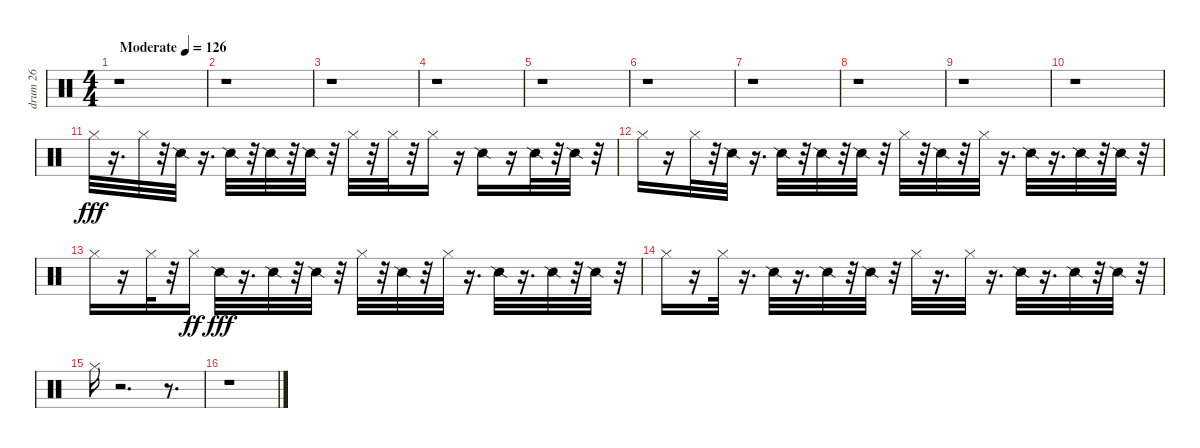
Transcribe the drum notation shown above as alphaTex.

\track ("drum 26" "drum 26") {instrument percussion}
\staff {score}
\articulation defaults
\ts (4 4)
\tempo (126 "Moderate")
\clef neutral
\ks c
r.1{dy fff} |
r.1 |
r.1 |
r.1 |
r.1 |
r.1 |
r.1 |
r.1 |
r.1 |
r.1 |
"Hi-Hat (closed)".32 r.16{d} "Hi-Hat (closed)".32 r.32 "Snare (side stick) 2".32 r.16{d} "Snare (side stick) 2".32 r.32 "Snare (side stick) 2".32 r.32 "Snare (side stick) 2".32 r.32 "Hi-Hat (closed)".32 r.32 "Hi-Hat (closed)".32 r.32 "Hi-Hat (closed)".16 r.16 "Snare (side stick) 2".16 r.16 "Snare (side stick) 2".32 r.32 "Snare (side stick) 2".32 r.32 |
"Hi-Hat (closed)".16 r.16 "Hi-Hat (closed)".32 r.32 "Snare (side stick) 2".32 r.16{d} "Snare (side stick) 2".32 r.32 "Snare (side stick) 2".32 r.32 "Snare (side stick) 2".32 r.32 "Hi-Hat (closed)".32 r.32 "Snare (side stick) 2".32 r.32 "Hi-Hat (closed)".32 r.16{d} "Snare (side stick) 2".32 r.16{d} "Snare (side stick) 2".32 r.32 "Snare (side stick) 2".32 r.32 |
"Hi-Hat (closed)".16 r.16 "Hi-Hat (closed)".32 r.32 "Hi-Hat (closed)".16{dy ff} "Snare (side stick) 2".32{dy fff} r.16{d} "Snare (side stick) 2".32 r.32 "Snare (side stick) 2".32 r.32 "Hi-Hat (closed)".32 r.32 "Snare (side stick) 2".32 r.32 "Hi-Hat (closed)".32 r.16{d} "Snare (side stick) 2".32 r.16{d} "Snare (side stick) 2".32 r.32 "Snare (side stick) 2".32 r.32 |
"Hi-Hat (closed)".16 r.16 "Hi-Hat (closed)".32 r.16{d} "Snare (side stick) 2".32 r.16{d} "Snare (side stick) 2".32 r.32 "Snare (side stick) 2".32 r.32 "Hi-Hat (closed)".32 r.16{d} "Hi-Hat (closed)".32 r.16{d} "Snare (side stick) 2".32 r.16{d} "Snare (side stick) 2".32 r.32 "Snare (side stick) 2".32 r.32 |
"Hi-Hat (closed)".16 r.2{d} r.8{d} |
r.1
